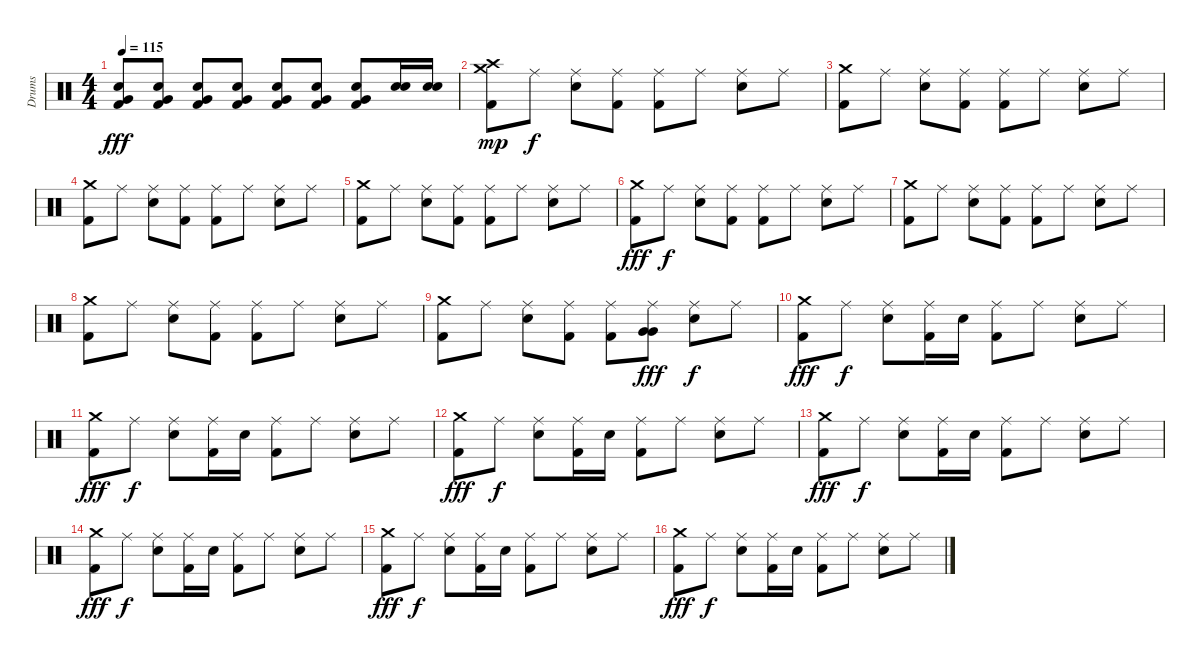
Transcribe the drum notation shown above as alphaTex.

\track ("Drums" "Drums") {instrument percussion}
\staff {score}
\articulation defaults
\ts (4 4)
\tempo 115
\clef neutral
\ks c
("Electric Snare (hit)" "Very Low Tom (hit)" "Kick (hit) 2").8{dy fff} ("Electric Snare (hit)" "Very Low Tom (hit)" "Kick (hit) 2").8 ("Electric Snare (hit)" "Very Low Tom (hit)" "Kick (hit) 2").8 ("Electric Snare (hit)" "Very Low Tom (hit)" "Kick (hit) 2").8 ("Electric Snare (hit)" "Very Low Tom (hit)" "Kick (hit) 2").8 ("Electric Snare (hit)" "Very Low Tom (hit)" "Kick (hit) 2").8 ("Electric Snare (hit)" "Very Low Tom (hit)" "Kick (hit) 2").8 ("Electric Snare (hit)" "Electric Snare (hit)").16 ("Electric Snare (hit)" "Electric Snare (hit)").16 |
("Crash medium (hit)" "Crash high (hit)" "Kick (hit) 2").8{dy mp} "Ride (middle)".8{dy f} ("Ride (middle)" "Electric Snare (hit)").8 ("Ride (middle)" "Kick (hit) 2").8 ("Ride (middle)" "Kick (hit) 2").8 "Ride (middle)".8 ("Ride (middle)" "Electric Snare (hit)").8 "Ride (middle)".8 |
("Crash medium (hit)" "Kick (hit) 2").8 "Ride (middle)".8 ("Ride (middle)" "Electric Snare (hit)").8 ("Ride (middle)" "Kick (hit) 2").8 ("Ride (middle)" "Kick (hit) 2").8 "Ride (middle)".8 ("Ride (middle)" "Electric Snare (hit)").8 "Ride (middle)".8 |
("Crash medium (hit)" "Kick (hit) 2").8 "Ride (middle)".8 ("Ride (middle)" "Electric Snare (hit)").8 ("Ride (middle)" "Kick (hit) 2").8 ("Ride (middle)" "Kick (hit) 2").8 "Ride (middle)".8 ("Ride (middle)" "Electric Snare (hit)").8 "Ride (middle)".8 |
("Crash medium (hit)" "Kick (hit) 2").8 "Ride (middle)".8 ("Ride (middle)" "Electric Snare (hit)").8 ("Ride (middle)" "Kick (hit) 2").8 ("Ride (middle)" "Kick (hit) 2").8 "Ride (middle)".8 ("Ride (middle)" "Electric Snare (hit)").8 "Ride (middle)".8 |
("Crash medium (hit)" "Kick (hit) 2").8{dy fff} "Ride (middle)".8{dy f} ("Ride (middle)" "Electric Snare (hit)").8 ("Ride (middle)" "Kick (hit) 2").8 ("Ride (middle)" "Kick (hit) 2").8 "Ride (middle)".8 ("Ride (middle)" "Electric Snare (hit)").8 "Ride (middle)".8 |
("Crash medium (hit)" "Kick (hit) 2").8 "Ride (middle)".8 ("Ride (middle)" "Electric Snare (hit)").8 ("Ride (middle)" "Kick (hit) 2").8 ("Ride (middle)" "Kick (hit) 2").8 "Ride (middle)".8 ("Ride (middle)" "Electric Snare (hit)").8 "Ride (middle)".8 |
("Crash medium (hit)" "Kick (hit) 2").8 "Ride (middle)".8 ("Ride (middle)" "Electric Snare (hit)").8 ("Ride (middle)" "Kick (hit) 2").8 ("Ride (middle)" "Kick (hit) 2").8 "Ride (middle)".8 ("Ride (middle)" "Electric Snare (hit)").8 "Ride (middle)".8 |
("Crash medium (hit)" "Kick (hit) 2").8 "Ride (middle)".8 ("Ride (middle)" "Electric Snare (hit)").8 ("Ride (middle)" "Kick (hit) 2").8 ("Ride (middle)" "Kick (hit) 2").8 ("Ride (middle)" "Very Low Tom (hit)" "Very Low Tom (hit)").8{dy fff} ("Ride (middle)" "Electric Snare (hit)").8{dy f} "Ride (middle)".8 |
("Crash medium (hit)" "Kick (hit) 2").8{dy fff} "Ride (middle)".8{dy f} ("Ride (middle)" "Electric Snare (hit)").8 ("Ride (middle)" "Kick (hit) 2").16 "Electric Snare (hit)".16 ("Ride (middle)" "Kick (hit) 2").8 "Ride (middle)".8 ("Ride (middle)" "Electric Snare (hit)").8 "Ride (middle)".8 |
("Crash medium (hit)" "Kick (hit) 2").8{dy fff} "Ride (middle)".8{dy f} ("Ride (middle)" "Electric Snare (hit)").8 ("Ride (middle)" "Kick (hit) 2").16 "Electric Snare (hit)".16 ("Ride (middle)" "Kick (hit) 2").8 "Ride (middle)".8 ("Ride (middle)" "Electric Snare (hit)").8 "Ride (middle)".8 |
("Crash medium (hit)" "Kick (hit) 2").8{dy fff} "Ride (middle)".8{dy f} ("Ride (middle)" "Electric Snare (hit)").8 ("Ride (middle)" "Kick (hit) 2").16 "Electric Snare (hit)".16 ("Ride (middle)" "Kick (hit) 2").8 "Ride (middle)".8 ("Ride (middle)" "Electric Snare (hit)").8 "Ride (middle)".8 |
("Crash medium (hit)" "Kick (hit) 2").8{dy fff} "Ride (middle)".8{dy f} ("Ride (middle)" "Electric Snare (hit)").8 ("Ride (middle)" "Kick (hit) 2").16 "Electric Snare (hit)".16 ("Ride (middle)" "Kick (hit) 2").8 "Ride (middle)".8 ("Ride (middle)" "Electric Snare (hit)").8 "Ride (middle)".8 |
("Crash medium (hit)" "Kick (hit) 2").8{dy fff} "Ride (middle)".8{dy f} ("Ride (middle)" "Electric Snare (hit)").8 ("Ride (middle)" "Kick (hit) 2").16 "Electric Snare (hit)".16 ("Ride (middle)" "Kick (hit) 2").8 "Ride (middle)".8 ("Ride (middle)" "Electric Snare (hit)").8 "Ride (middle)".8 |
("Crash medium (hit)" "Kick (hit) 2").8{dy fff} "Ride (middle)".8{dy f} ("Ride (middle)" "Electric Snare (hit)").8 ("Ride (middle)" "Kick (hit) 2").16 "Electric Snare (hit)".16 ("Ride (middle)" "Kick (hit) 2").8 "Ride (middle)".8 ("Ride (middle)" "Electric Snare (hit)").8 "Ride (middle)".8 |
("Crash medium (hit)" "Kick (hit) 2").8{dy fff} "Ride (middle)".8{dy f} ("Ride (middle)" "Electric Snare (hit)").8 ("Ride (middle)" "Kick (hit) 2").16 "Electric Snare (hit)".16 ("Ride (middle)" "Kick (hit) 2").8 "Ride (middle)".8 ("Ride (middle)" "Electric Snare (hit)").8 "Ride (middle)".8
